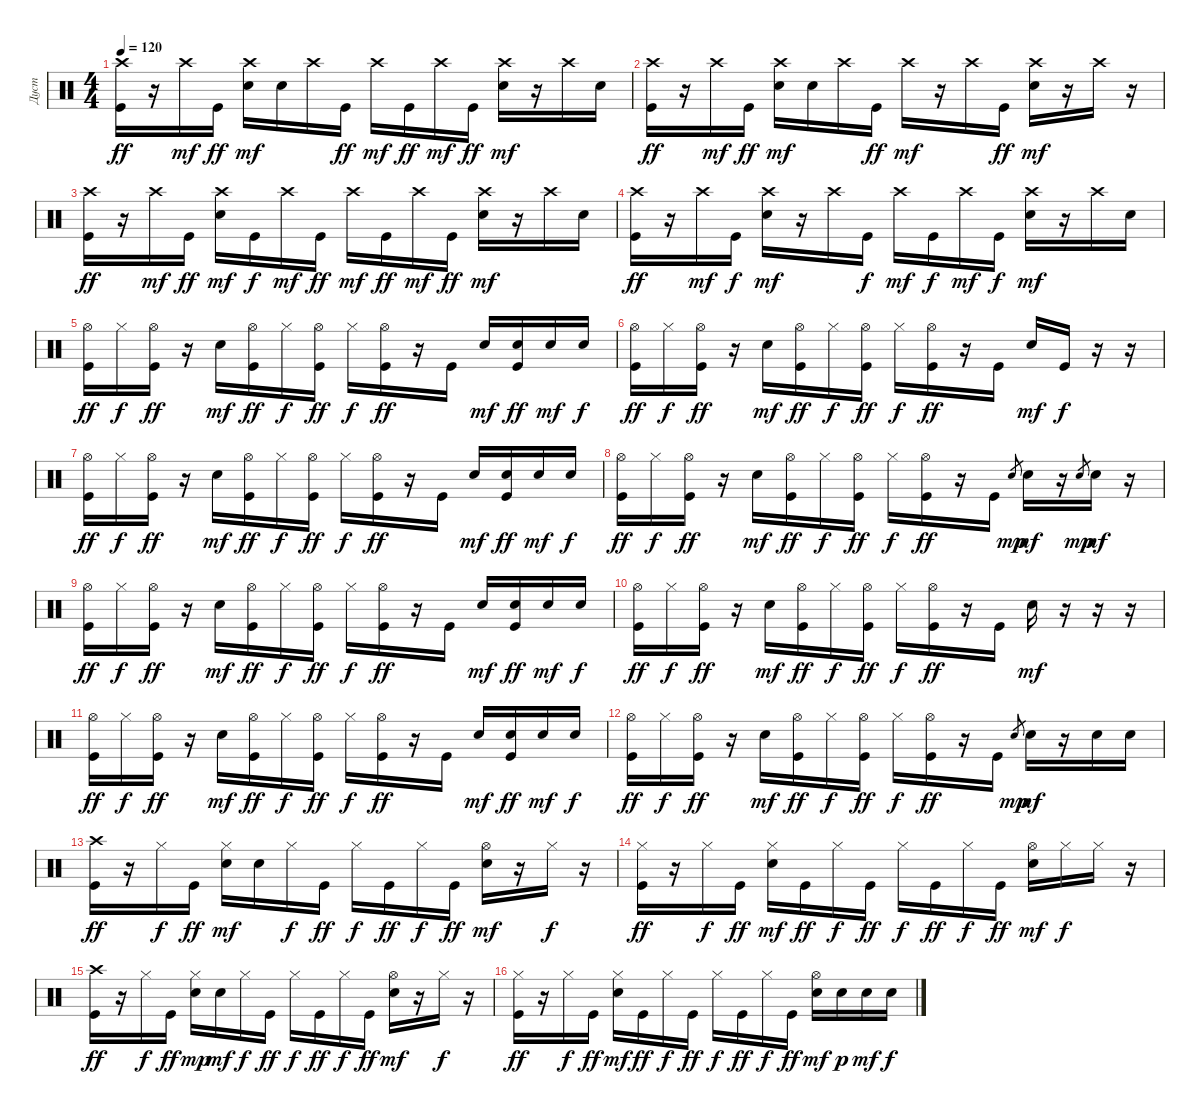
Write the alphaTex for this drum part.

\track ("Дуст" "Дуст") {instrument percussion}
\staff {score}
\articulation defaults
\ts (4 4)
\tempo 120
\clef neutral
\ks c
("Crash high (hit)" "Kick (hit)").16{dy ff} r.16 "Crash high (hit)".16{dy mf} "Kick (hit)".16{dy ff} ("Crash high (hit)" "Metronome (bell)").16{dy mf} "Metronome (bell)".16 "Crash high (hit)".16 "Kick (hit)".16{dy ff} "Crash high (hit)".16{dy mf} "Kick (hit)".16{dy ff} "Crash high (hit)".16{dy mf} "Kick (hit)".16{dy ff} ("Crash high (hit)" "Metronome (bell)").16{dy mf} r.16 "Crash high (hit)".16 "Metronome (bell)".16 |
("Crash high (hit)" "Kick (hit)").16{dy ff} r.16 "Crash high (hit)".16{dy mf} "Kick (hit)".16{dy ff} ("Crash high (hit)" "Metronome (bell)").16{dy mf} "Metronome (bell)".16 "Crash high (hit)".16 "Kick (hit)".16{dy ff} "Crash high (hit)".16{dy mf} r.16 "Crash high (hit)".16 "Kick (hit)".16{dy ff} ("Crash high (hit)" "Metronome (bell)").16{dy mf} r.16 "Crash high (hit)".16 r.16 |
("Crash high (hit)" "Kick (hit)").16{dy ff} r.16 "Crash high (hit)".16{dy mf} "Kick (hit)".16{dy ff} ("Crash high (hit)" "Metronome (bell)").16{dy mf} "Kick (hit)".16{dy f} "Crash high (hit)".16{dy mf} "Kick (hit)".16{dy ff} "Crash high (hit)".16{dy mf} "Kick (hit)".16{dy ff} "Crash high (hit)".16{dy mf} "Kick (hit)".16{dy ff} ("Crash high (hit)" "Metronome (bell)").16{dy mf} r.16 "Crash high (hit)".16 "Metronome (bell)".16 |
("Crash high (hit)" "Kick (hit)").16{dy ff} r.16 "Crash high (hit)".16{dy mf} "Kick (hit)".16{dy f} ("Crash high (hit)" "Metronome (bell)").16{dy mf} r.16 "Crash high (hit)".16 "Kick (hit)".16{dy f} "Crash high (hit)".16{dy mf} "Kick (hit)".16{dy f} "Crash high (hit)".16{dy mf} "Kick (hit)".16{dy f} ("Crash high (hit)" "Metronome (bell)").16{dy mf} r.16 "Crash high (hit)".16 "Metronome (bell)".16 |
("Hi-Hat (open)" "Kick (hit)").16{dy ff} "Hi-Hat (closed)".16{dy f} ("Hi-Hat (open)" "Kick (hit)").16{dy ff} r.16 "Metronome (bell)".16{dy mf} ("Hi-Hat (open)" "Kick (hit)").16{dy ff} "Hi-Hat (closed)".16{dy f} ("Hi-Hat (open)" "Kick (hit)").16{dy ff} "Hi-Hat (closed)".16{dy f} ("Hi-Hat (open)" "Kick (hit)").16{dy ff} r.16 "Kick (hit)".16 "Metronome (bell)".16{dy mf} ("Metronome (bell)" "Kick (hit)").16{dy ff} "Metronome (bell)".16{dy mf} "Metronome (bell)".16{dy f} |
("Hi-Hat (open)" "Kick (hit)").16{dy ff} "Hi-Hat (closed)".16{dy f} ("Hi-Hat (open)" "Kick (hit)").16{dy ff} r.16 "Metronome (bell)".16{dy mf} ("Hi-Hat (open)" "Kick (hit)").16{dy ff} "Hi-Hat (closed)".16{dy f} ("Hi-Hat (open)" "Kick (hit)").16{dy ff} "Hi-Hat (closed)".16{dy f} ("Hi-Hat (open)" "Kick (hit)").16{dy ff} r.16 "Kick (hit)".16 "Metronome (bell)".16{dy mf} "Kick (hit)".16{dy f} r.16 r.16 |
("Hi-Hat (open)" "Kick (hit)").16{dy ff} "Hi-Hat (closed)".16{dy f} ("Hi-Hat (open)" "Kick (hit)").16{dy ff} r.16 "Metronome (bell)".16{dy mf} ("Hi-Hat (open)" "Kick (hit)").16{dy ff} "Hi-Hat (closed)".16{dy f} ("Hi-Hat (open)" "Kick (hit)").16{dy ff} "Hi-Hat (closed)".16{dy f} ("Hi-Hat (open)" "Kick (hit)").16{dy ff} r.16 "Kick (hit)".16 "Metronome (bell)".16{dy mf} ("Metronome (bell)" "Kick (hit)").16{dy ff} "Metronome (bell)".16{dy mf} "Metronome (bell)".16{dy f} |
("Hi-Hat (open)" "Kick (hit)").16{dy ff} "Hi-Hat (closed)".16{dy f} ("Hi-Hat (open)" "Kick (hit)").16{dy ff} r.16 "Metronome (bell)".16{dy mf} ("Hi-Hat (open)" "Kick (hit)").16{dy ff} "Hi-Hat (closed)".16{dy f} ("Hi-Hat (open)" "Kick (hit)").16{dy ff} "Hi-Hat (closed)".16{dy f} ("Hi-Hat (open)" "Kick (hit)").16{dy ff} r.16 "Kick (hit)".16 "Metronome (bell)".8{gr dy mp} "Metronome (bell)".16{dy mf} r.16 "Metronome (bell)".8{gr dy mp} "Metronome (bell)".16{dy mf} r.16 |
("Hi-Hat (open)" "Kick (hit)").16{dy ff} "Hi-Hat (closed)".16{dy f} ("Hi-Hat (open)" "Kick (hit)").16{dy ff} r.16 "Metronome (bell)".16{dy mf} ("Hi-Hat (open)" "Kick (hit)").16{dy ff} "Hi-Hat (closed)".16{dy f} ("Hi-Hat (open)" "Kick (hit)").16{dy ff} "Hi-Hat (closed)".16{dy f} ("Hi-Hat (open)" "Kick (hit)").16{dy ff} r.16 "Kick (hit)".16 "Metronome (bell)".16{dy mf} ("Metronome (bell)" "Kick (hit)").16{dy ff} "Metronome (bell)".16{dy mf} "Metronome (bell)".16{dy f} |
("Hi-Hat (open)" "Kick (hit)").16{dy ff} "Hi-Hat (closed)".16{dy f} ("Hi-Hat (open)" "Kick (hit)").16{dy ff} r.16 "Metronome (bell)".16{dy mf} ("Hi-Hat (open)" "Kick (hit)").16{dy ff} "Hi-Hat (closed)".16{dy f} ("Hi-Hat (open)" "Kick (hit)").16{dy ff} "Hi-Hat (closed)".16{dy f} ("Hi-Hat (open)" "Kick (hit)").16{dy ff} r.16 "Kick (hit)".16 "Metronome (bell)".16{dy mf} r.16 r.16 r.16 |
("Hi-Hat (open)" "Kick (hit)").16{dy ff} "Hi-Hat (closed)".16{dy f} ("Hi-Hat (open)" "Kick (hit)").16{dy ff} r.16 "Metronome (bell)".16{dy mf} ("Hi-Hat (open)" "Kick (hit)").16{dy ff} "Hi-Hat (closed)".16{dy f} ("Hi-Hat (open)" "Kick (hit)").16{dy ff} "Hi-Hat (closed)".16{dy f} ("Hi-Hat (open)" "Kick (hit)").16{dy ff} r.16 "Kick (hit)".16 "Metronome (bell)".16{dy mf} ("Metronome (bell)" "Kick (hit)").16{dy ff} "Metronome (bell)".16{dy mf} "Metronome (bell)".16{dy f} |
("Hi-Hat (open)" "Kick (hit)").16{dy ff} "Hi-Hat (closed)".16{dy f} ("Hi-Hat (open)" "Kick (hit)").16{dy ff} r.16 "Metronome (bell)".16{dy mf} ("Hi-Hat (open)" "Kick (hit)").16{dy ff} "Hi-Hat (closed)".16{dy f} ("Hi-Hat (open)" "Kick (hit)").16{dy ff} "Hi-Hat (closed)".16{dy f} ("Hi-Hat (open)" "Kick (hit)").16{dy ff} r.16 "Kick (hit)".16 "Metronome (bell)".8{gr dy mp} "Metronome (bell)".16{dy mf} r.16 "Metronome (bell)".16 "Metronome (bell)".16 |
("Crash high (hit)" "Kick (hit)").16{dy ff} r.16 "Hi-Hat (closed)".16{dy f} "Kick (hit)".16{dy ff} ("Hi-Hat (closed)" "Metronome (bell)").16{dy mf} "Metronome (bell)".16 "Hi-Hat (closed)".16{dy f} "Kick (hit)".16{dy ff} "Hi-Hat (closed)".16{dy f} "Kick (hit)".16{dy ff} "Hi-Hat (closed)".16{dy f} "Kick (hit)".16{dy ff} ("Hi-Hat (open)" "Metronome (bell)").16{dy mf} r.16 "Hi-Hat (closed)".16{dy f} r.16 |
("Hi-Hat (closed)" "Kick (hit)").16{dy ff} r.16 "Hi-Hat (closed)".16{dy f} "Kick (hit)".16{dy ff} ("Hi-Hat (closed)" "Metronome (bell)").16{dy mf} "Kick (hit)".16{dy ff} "Hi-Hat (closed)".16{dy f} "Kick (hit)".16{dy ff} "Hi-Hat (closed)".16{dy f} "Kick (hit)".16{dy ff} "Hi-Hat (closed)".16{dy f} "Kick (hit)".16{dy ff} ("Hi-Hat (open)" "Metronome (bell)").16{dy mf} "Hi-Hat (closed)".16{dy f} "Hi-Hat (closed)".16 r.16 |
("Crash high (hit)" "Kick (hit)").16{dy ff} r.16 "Hi-Hat (closed)".16{dy f} "Kick (hit)".16{dy ff} ("Hi-Hat (closed)" "Metronome (bell)").16{dy mp} "Metronome (bell)".16{dy mf} "Hi-Hat (closed)".16{dy f} "Kick (hit)".16{dy ff} "Hi-Hat (closed)".16{dy f} "Kick (hit)".16{dy ff} "Hi-Hat (closed)".16{dy f} "Kick (hit)".16{dy ff} ("Hi-Hat (open)" "Metronome (bell)").16{dy mf} r.16 "Hi-Hat (closed)".16{dy f} r.16 |
("Hi-Hat (closed)" "Kick (hit)").16{dy ff} r.16 "Hi-Hat (closed)".16{dy f} "Kick (hit)".16{dy ff} ("Hi-Hat (closed)" "Metronome (bell)").16{dy mf} "Kick (hit)".16{dy ff} "Hi-Hat (closed)".16{dy f} "Kick (hit)".16{dy ff} "Hi-Hat (closed)".16{dy f} "Kick (hit)".16{dy ff} "Hi-Hat (closed)".16{dy f} "Kick (hit)".16{dy ff} ("Hi-Hat (open)" "Metronome (bell)").16{dy mf} "Metronome (bell)".16{dy p} "Metronome (bell)".16{dy mf} "Metronome (bell)".16{dy f}
